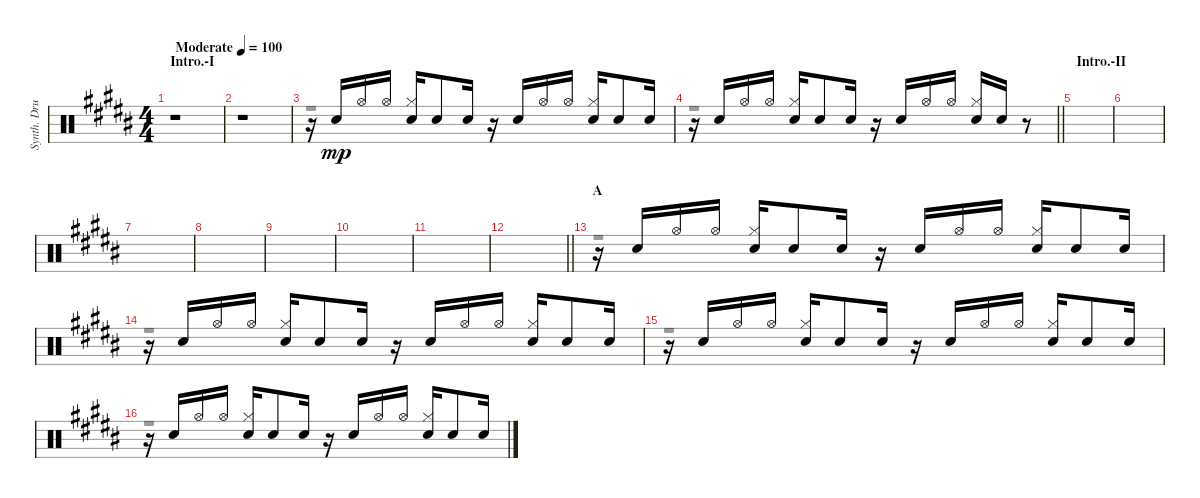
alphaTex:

\track ("Synth. Drums" "Synth. Dru") {instrument percussion}
\staff {score}
\articulation defaults
\voice
\ts (4 4)
\section ("" "Intro.-I")
\tempo (100 "Moderate")
\clef neutral
\ks b
r.1{dy mp} |
r.1 |
r.16 "Snare (hit) 2".16 "Hi-Hat (open)".16 "Hi-Hat (open)".16 ("Hi-Hat (closed)" "Snare (hit) 2").16 "Snare (hit) 2".8 "Snare (hit) 2".16 r.16 "Snare (hit) 2".16 "Hi-Hat (open)".16 "Hi-Hat (open)".16 ("Hi-Hat (closed)" "Snare (hit) 2").16 "Snare (hit) 2".8 "Snare (hit) 2".16 |
\barLineRight lightlight
r.16 "Snare (hit) 2".16 "Hi-Hat (open)".16 "Hi-Hat (open)".16 ("Hi-Hat (closed)" "Snare (hit) 2").16 "Snare (hit) 2".8 "Snare (hit) 2".16 r.16 "Snare (hit) 2".16 "Hi-Hat (open)".16 "Hi-Hat (open)".16 ("Hi-Hat (closed)" "Snare (hit) 2").16 "Snare (hit) 2".16 r.8 |
\section ("" "Intro.-II")
|
|
|
|
|
|
|
\barLineRight lightlight
|
\section ("" "A")
r.16 "Snare (hit) 2".16 "Hi-Hat (open)".16 "Hi-Hat (open)".16 ("Hi-Hat (closed)" "Snare (hit) 2").16 "Snare (hit) 2".8 "Snare (hit) 2".16 r.16 "Snare (hit) 2".16 "Hi-Hat (open)".16 "Hi-Hat (open)".16 ("Hi-Hat (closed)" "Snare (hit) 2").16 "Snare (hit) 2".8 "Snare (hit) 2".16 |
r.16 "Snare (hit) 2".16 "Hi-Hat (open)".16 "Hi-Hat (open)".16 ("Hi-Hat (closed)" "Snare (hit) 2").16 "Snare (hit) 2".8 "Snare (hit) 2".16 r.16 "Snare (hit) 2".16 "Hi-Hat (open)".16 "Hi-Hat (open)".16 ("Hi-Hat (closed)" "Snare (hit) 2").16 "Snare (hit) 2".8 "Snare (hit) 2".16 |
r.16 "Snare (hit) 2".16 "Hi-Hat (open)".16 "Hi-Hat (open)".16 ("Hi-Hat (closed)" "Snare (hit) 2").16 "Snare (hit) 2".8 "Snare (hit) 2".16 r.16 "Snare (hit) 2".16 "Hi-Hat (open)".16 "Hi-Hat (open)".16 ("Hi-Hat (closed)" "Snare (hit) 2").16 "Snare (hit) 2".8 "Snare (hit) 2".16 |
r.16 "Snare (hit) 2".16 "Hi-Hat (open)".16 "Hi-Hat (open)".16 ("Hi-Hat (closed)" "Snare (hit) 2").16 "Snare (hit) 2".8 "Snare (hit) 2".16 r.16 "Snare (hit) 2".16 "Hi-Hat (open)".16 "Hi-Hat (open)".16 ("Hi-Hat (closed)" "Snare (hit) 2").16 "Snare (hit) 2".8 "Snare (hit) 2".16
\voice
\clef neutral
\ottava regular
\simile none
\ks b
|
|
r.1 |
\barLineRight lightlight
r.1 |
|
|
|
|
|
|
|
\barLineRight lightlight
|
r.1 |
r.1 |
r.1 |
r.1
